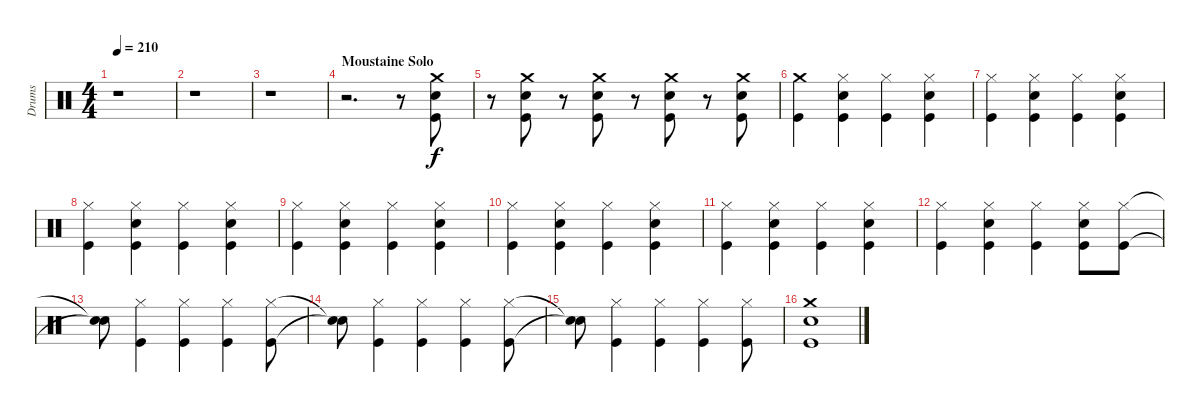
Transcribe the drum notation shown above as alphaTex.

\track ("Drums" "Drums") {instrument percussion}
\staff {score}
\articulation defaults
\ts (4 4)
\tempo 210
\clef neutral
\ks c
r.1{dy f} |
r.1 |
r.1 |
\section ("" "Moustaine Solo")
r.2{d} r.8 ("Crash medium (hit)" "Snare (hit) 2" "Kick (hit)").8 |
r.8 ("Crash medium (hit)" "Snare (hit) 2" "Kick (hit)").8 r.8 ("Crash medium (hit)" "Snare (hit) 2" "Kick (hit)").8 r.8 ("Crash medium (hit)" "Snare (hit) 2" "Kick (hit)").8 r.8 ("Crash medium (hit)" "Snare (hit) 2" "Kick (hit)").8 |
("Crash medium (hit)" "Kick (hit)").4 ("Hi-Hat (closed)" "Snare (hit) 2" "Kick (hit)").4 ("Hi-Hat (closed)" "Kick (hit)").4 ("Hi-Hat (closed)" "Snare (hit) 2" "Kick (hit)").4 |
("Hi-Hat (closed)" "Kick (hit)").4 ("Hi-Hat (closed)" "Snare (hit) 2" "Kick (hit)").4 ("Hi-Hat (closed)" "Kick (hit)").4 ("Hi-Hat (closed)" "Snare (hit) 2" "Kick (hit)").4 |
("Hi-Hat (closed)" "Kick (hit)").4 ("Hi-Hat (closed)" "Snare (hit) 2" "Kick (hit)").4 ("Hi-Hat (closed)" "Kick (hit)").4 ("Hi-Hat (closed)" "Snare (hit) 2" "Kick (hit)").4 |
("Hi-Hat (closed)" "Kick (hit)").4 ("Hi-Hat (closed)" "Snare (hit) 2" "Kick (hit)").4 ("Hi-Hat (closed)" "Kick (hit)").4 ("Hi-Hat (closed)" "Snare (hit) 2" "Kick (hit)").4 |
("Hi-Hat (closed)" "Kick (hit)").4 ("Hi-Hat (closed)" "Snare (hit) 2" "Kick (hit)").4 ("Hi-Hat (closed)" "Kick (hit)").4 ("Hi-Hat (closed)" "Snare (hit) 2" "Kick (hit)").4 |
("Hi-Hat (closed)" "Kick (hit)").4 ("Hi-Hat (closed)" "Snare (hit) 2" "Kick (hit)").4 ("Hi-Hat (closed)" "Kick (hit)").4 ("Hi-Hat (closed)" "Snare (hit) 2" "Kick (hit)").4 |
("Hi-Hat (closed)" "Kick (hit)").4 ("Hi-Hat (closed)" "Snare (hit) 2" "Kick (hit)").4 ("Hi-Hat (closed)" "Kick (hit)").4 ("Hi-Hat (closed)" "Snare (hit) 2" "Kick (hit)").8 ("Hi-Hat (closed)" "Kick (hit)").8 |
("Snare (hit)"{t} "Snare (hit)"{t}).8 ("Hi-Hat (closed)" "Kick (hit)").4 ("Hi-Hat (closed)" "Kick (hit)").4 ("Hi-Hat (closed)" "Kick (hit)").4 ("Hi-Hat (closed)" "Kick (hit)").8 |
("Snare (hit)"{t} "Snare (hit)"{t}).8 ("Hi-Hat (closed)" "Kick (hit)").4 ("Hi-Hat (closed)" "Kick (hit)").4 ("Hi-Hat (closed)" "Kick (hit)").4 ("Hi-Hat (closed)" "Kick (hit)").8 |
("Snare (hit)"{t} "Snare (hit)"{t}).8 ("Hi-Hat (closed)" "Kick (hit)").4 ("Hi-Hat (closed)" "Kick (hit)").4 ("Hi-Hat (closed)" "Kick (hit)").4 ("Hi-Hat (closed)" "Kick (hit)").8 |
("Crash medium (hit)" "Snare (hit) 2" "Kick (hit)").1
